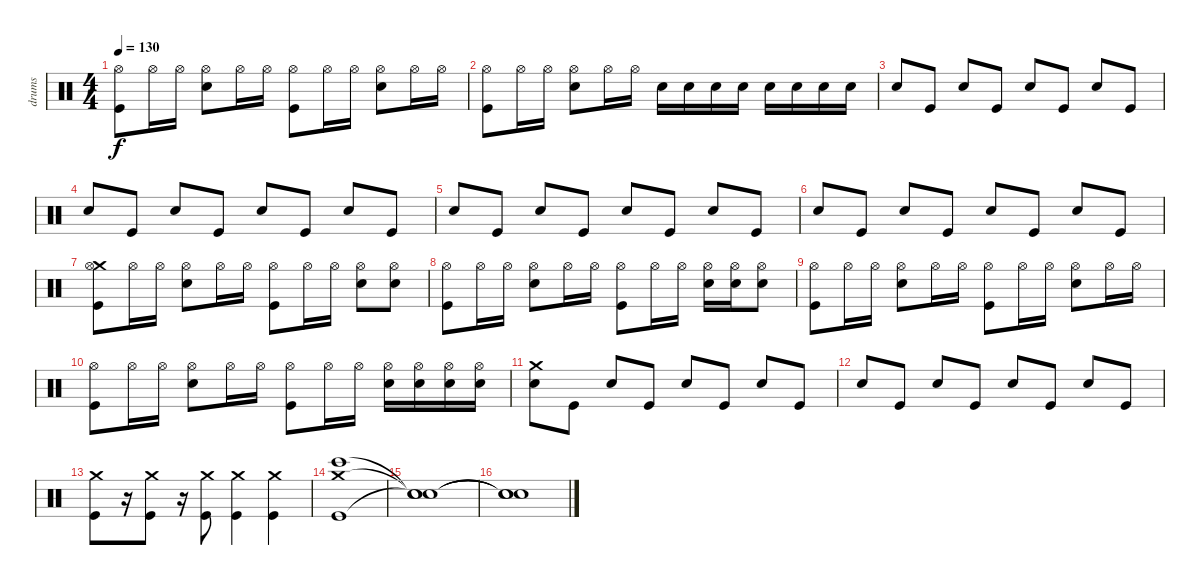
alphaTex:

\track ("drums" "drums") {instrument percussion}
\staff {score}
\articulation defaults
\ts (4 4)
\tempo 130
\clef neutral
\ks c
("Hi-Hat (open)" "Kick (hit)").8{dy f} "Hi-Hat (open)".16 "Hi-Hat (open)".16 ("Hi-Hat (open)" "Snare (hit) 2").8 "Hi-Hat (open)".16 "Hi-Hat (open)".16 ("Hi-Hat (open)" "Kick (hit)").8 "Hi-Hat (open)".16 "Hi-Hat (open)".16 ("Snare (hit) 2" "Hi-Hat (open)").8 "Hi-Hat (open)".16 "Hi-Hat (open)".16 |
("Hi-Hat (open)" "Kick (hit)").8 "Hi-Hat (open)".16 "Hi-Hat (open)".16 ("Hi-Hat (open)" "Snare (hit) 2").8 "Hi-Hat (open)".16 "Hi-Hat (open)".16 "Snare (hit) 2".16 "Snare (hit) 2".16 "Snare (hit) 2".16 "Snare (hit) 2".16 "Snare (hit) 2".16 "Snare (hit) 2".16 "Snare (hit) 2".16 "Snare (hit) 2".16 |
"Snare (hit) 2".8 "Kick (hit)".8 "Snare (hit) 2".8 "Kick (hit)".8 "Snare (hit) 2".8 "Kick (hit)".8 "Snare (hit) 2".8 "Kick (hit)".8 |
"Snare (hit) 2".8 "Kick (hit)".8 "Snare (hit) 2".8 "Kick (hit)".8 "Snare (hit) 2".8 "Kick (hit)".8 "Snare (hit) 2".8 "Kick (hit)".8 |
"Snare (hit) 2".8 "Kick (hit)".8 "Snare (hit) 2".8 "Kick (hit)".8 "Snare (hit) 2".8 "Kick (hit)".8 "Snare (hit) 2".8 "Kick (hit)".8 |
"Snare (hit) 2".8 "Kick (hit)".8 "Snare (hit) 2".8 "Kick (hit)".8 "Snare (hit) 2".8 "Kick (hit)".8 "Snare (hit) 2".8 "Kick (hit)".8 |
("Crash medium (hit)" "Hi-Hat (open)" "Kick (hit)").8 "Hi-Hat (open)".16 "Hi-Hat (open)".16 ("Hi-Hat (open)" "Snare (hit) 2").8 "Hi-Hat (open)".16 "Hi-Hat (open)".16 ("Hi-Hat (open)" "Kick (hit)").8 "Hi-Hat (open)".16 "Hi-Hat (open)".16 ("Snare (hit) 2" "Hi-Hat (open)").8 ("Snare (hit) 2" "Hi-Hat (open)").8 |
("Hi-Hat (open)" "Kick (hit)").8 "Hi-Hat (open)".16 "Hi-Hat (open)".16 ("Hi-Hat (open)" "Snare (hit) 2").8 "Hi-Hat (open)".16 "Hi-Hat (open)".16 ("Hi-Hat (open)" "Kick (hit)").8 "Hi-Hat (open)".16 "Hi-Hat (open)".16 ("Snare (hit) 2" "Hi-Hat (open)").16 ("Snare (hit) 2" "Hi-Hat (open)").16 ("Snare (hit) 2" "Hi-Hat (open)").8 |
("Hi-Hat (open)" "Kick (hit)").8 "Hi-Hat (open)".16 "Hi-Hat (open)".16 ("Hi-Hat (open)" "Snare (hit) 2").8 "Hi-Hat (open)".16 "Hi-Hat (open)".16 ("Hi-Hat (open)" "Kick (hit)").8 "Hi-Hat (open)".16 "Hi-Hat (open)".16 ("Snare (hit) 2" "Hi-Hat (open)").8 "Hi-Hat (open)".16 "Hi-Hat (open)".16 |
("Hi-Hat (open)" "Kick (hit)").8 "Hi-Hat (open)".16 "Hi-Hat (open)".16 ("Hi-Hat (open)" "Snare (hit) 2").8 "Hi-Hat (open)".16 "Hi-Hat (open)".16 ("Hi-Hat (open)" "Kick (hit)").8 "Hi-Hat (open)".16 "Hi-Hat (open)".16 ("Snare (hit) 2" "Hi-Hat (open)").16 ("Snare (hit) 2" "Hi-Hat (open)").16 ("Snare (hit) 2" "Hi-Hat (open)").16 ("Snare (hit) 2" "Hi-Hat (open)").16 |
("Crash medium (hit)" "Snare (hit) 2").8 "Kick (hit)".8 "Snare (hit) 2".8 "Kick (hit)".8 "Snare (hit) 2".8 "Kick (hit)".8 "Snare (hit) 2".8 "Kick (hit)".8 |
"Snare (hit) 2".8 "Kick (hit)".8 "Snare (hit) 2".8 "Kick (hit)".8 "Snare (hit) 2".8 "Kick (hit)".8 "Snare (hit) 2".8 "Kick (hit)".8 |
("Crash medium (hit)" "Kick (hit)").8 r.16 ("Crash medium (hit)" "Kick (hit)").8 r.16 ("Crash medium (hit)" "Kick (hit)").8 ("Crash medium (hit)" "Kick (hit)").4 ("Crash medium (hit)" "Kick (hit)").4 |
("Kick (hit)" "Crash medium (hit)" "Bongo High (hit)").1 |
("Snare (hit)"{t} "Snare (hit)"{t} "Snare (hit)"{t}).1 |
("Snare (hit)"{t} "Snare (hit)"{t} "Snare (hit)"{t}).1
